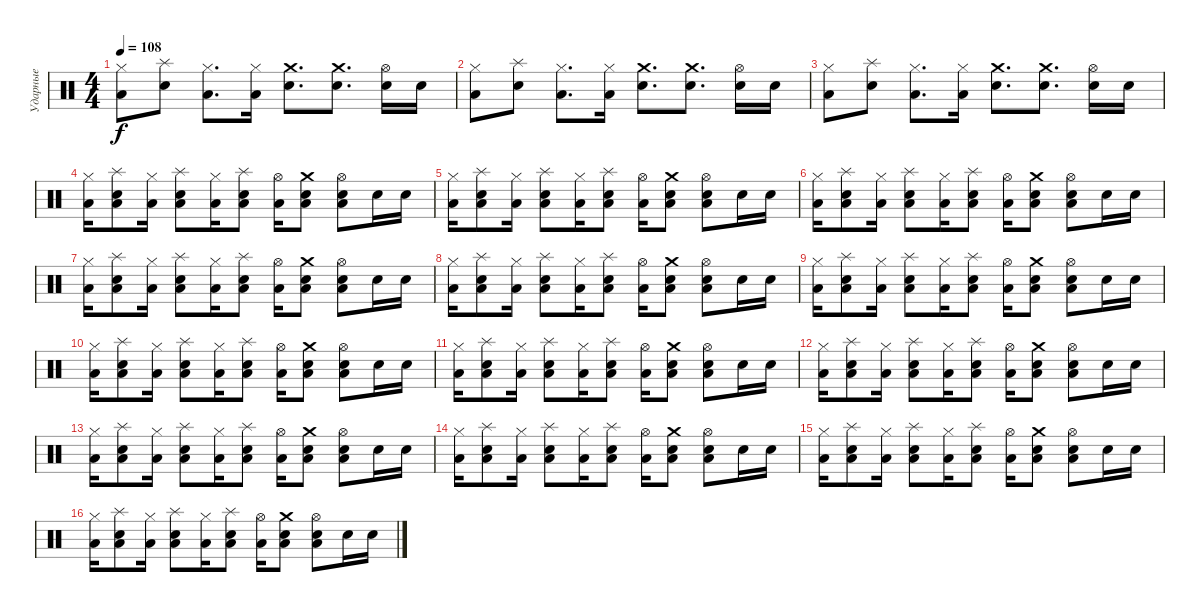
\track ("Ударные" "Ударные") {instrument percussion}
\staff {score}
\articulation defaults
\ts (4 4)
\tempo 108
\clef neutral
\ks c
("Low Floor Tom (hit)" "Hi-Hat (closed)").8{dy f} ("Electric Snare (hit)" "Splash (hit)").8 ("Low Floor Tom (hit)" "Hi-Hat (closed)").8{d} ("Low Floor Tom (hit)" "Hi-Hat (closed)").16 ("Electric Snare (hit)" "Crash medium (hit)").8{d} ("Electric Snare (hit)" "Crash medium (hit)").8{d} ("Electric Snare (hit)" "Hi-Hat (open)").16 "Electric Snare (hit)".16 |
("Low Floor Tom (hit)" "Hi-Hat (closed)").8 ("Electric Snare (hit)" "Splash (hit)").8 ("Low Floor Tom (hit)" "Hi-Hat (closed)").8{d} ("Low Floor Tom (hit)" "Hi-Hat (closed)").16 ("Electric Snare (hit)" "Crash medium (hit)").8{d} ("Electric Snare (hit)" "Crash medium (hit)").8{d} ("Electric Snare (hit)" "Hi-Hat (open)").16 "Electric Snare (hit)".16 |
("Low Floor Tom (hit)" "Hi-Hat (closed)").8 ("Electric Snare (hit)" "Splash (hit)").8 ("Low Floor Tom (hit)" "Hi-Hat (closed)").8{d} ("Low Floor Tom (hit)" "Hi-Hat (closed)").16 ("Electric Snare (hit)" "Crash medium (hit)").8{d} ("Electric Snare (hit)" "Crash medium (hit)").8{d} ("Electric Snare (hit)" "Hi-Hat (open)").16 "Electric Snare (hit)".16 |
("Low Floor Tom (hit)" "Hi-Hat (closed)").16 ("Low Floor Tom (hit)" "Electric Snare (hit)" "Splash (hit)").8 ("Low Floor Tom (hit)" "Hi-Hat (closed)").16 ("Low Floor Tom (hit)" "Electric Snare (hit)" "Splash (hit)").8 ("Low Floor Tom (hit)" "Hi-Hat (closed)").16 ("Low Floor Tom (hit)" "Electric Snare (hit)" "Splash (hit)").8 ("Low Floor Tom (hit)" "Hi-Hat (open)").16 ("Low Floor Tom (hit)" "Electric Snare (hit)" "Crash medium (hit)").8 ("Low Floor Tom (hit)" "Electric Snare (hit)" "Hi-Hat (open)").8 "Electric Snare (hit)".16 "Electric Snare (hit)".16 |
("Low Floor Tom (hit)" "Hi-Hat (closed)").16 ("Low Floor Tom (hit)" "Electric Snare (hit)" "Splash (hit)").8 ("Low Floor Tom (hit)" "Hi-Hat (closed)").16 ("Low Floor Tom (hit)" "Electric Snare (hit)" "Splash (hit)").8 ("Low Floor Tom (hit)" "Hi-Hat (closed)").16 ("Low Floor Tom (hit)" "Electric Snare (hit)" "Splash (hit)").8 ("Low Floor Tom (hit)" "Hi-Hat (open)").16 ("Low Floor Tom (hit)" "Electric Snare (hit)" "Crash medium (hit)").8 ("Low Floor Tom (hit)" "Electric Snare (hit)" "Hi-Hat (open)").8 "Electric Snare (hit)".16 "Electric Snare (hit)".16 |
("Low Floor Tom (hit)" "Hi-Hat (closed)").16 ("Low Floor Tom (hit)" "Electric Snare (hit)" "Splash (hit)").8 ("Low Floor Tom (hit)" "Hi-Hat (closed)").16 ("Low Floor Tom (hit)" "Electric Snare (hit)" "Splash (hit)").8 ("Low Floor Tom (hit)" "Hi-Hat (closed)").16 ("Low Floor Tom (hit)" "Electric Snare (hit)" "Splash (hit)").8 ("Low Floor Tom (hit)" "Hi-Hat (open)").16 ("Low Floor Tom (hit)" "Electric Snare (hit)" "Crash medium (hit)").8 ("Low Floor Tom (hit)" "Electric Snare (hit)" "Hi-Hat (open)").8 "Electric Snare (hit)".16 "Electric Snare (hit)".16 |
("Low Floor Tom (hit)" "Hi-Hat (closed)").16 ("Low Floor Tom (hit)" "Electric Snare (hit)" "Splash (hit)").8 ("Low Floor Tom (hit)" "Hi-Hat (closed)").16 ("Low Floor Tom (hit)" "Electric Snare (hit)" "Splash (hit)").8 ("Low Floor Tom (hit)" "Hi-Hat (closed)").16 ("Low Floor Tom (hit)" "Electric Snare (hit)" "Splash (hit)").8 ("Low Floor Tom (hit)" "Hi-Hat (open)").16 ("Low Floor Tom (hit)" "Electric Snare (hit)" "Crash medium (hit)").8 ("Low Floor Tom (hit)" "Electric Snare (hit)" "Hi-Hat (open)").8 "Electric Snare (hit)".16 "Electric Snare (hit)".16 |
("Low Floor Tom (hit)" "Hi-Hat (closed)").16 ("Low Floor Tom (hit)" "Electric Snare (hit)" "Splash (hit)").8 ("Low Floor Tom (hit)" "Hi-Hat (closed)").16 ("Low Floor Tom (hit)" "Electric Snare (hit)" "Splash (hit)").8 ("Low Floor Tom (hit)" "Hi-Hat (closed)").16 ("Low Floor Tom (hit)" "Electric Snare (hit)" "Splash (hit)").8 ("Low Floor Tom (hit)" "Hi-Hat (open)").16 ("Low Floor Tom (hit)" "Electric Snare (hit)" "Crash medium (hit)").8 ("Low Floor Tom (hit)" "Electric Snare (hit)" "Hi-Hat (open)").8 "Electric Snare (hit)".16 "Electric Snare (hit)".16 |
("Low Floor Tom (hit)" "Hi-Hat (closed)").16 ("Low Floor Tom (hit)" "Electric Snare (hit)" "Splash (hit)").8 ("Low Floor Tom (hit)" "Hi-Hat (closed)").16 ("Low Floor Tom (hit)" "Electric Snare (hit)" "Splash (hit)").8 ("Low Floor Tom (hit)" "Hi-Hat (closed)").16 ("Low Floor Tom (hit)" "Electric Snare (hit)" "Splash (hit)").8 ("Low Floor Tom (hit)" "Hi-Hat (open)").16 ("Low Floor Tom (hit)" "Electric Snare (hit)" "Crash medium (hit)").8 ("Low Floor Tom (hit)" "Electric Snare (hit)" "Hi-Hat (open)").8 "Electric Snare (hit)".16 "Electric Snare (hit)".16 |
("Low Floor Tom (hit)" "Hi-Hat (closed)").16 ("Low Floor Tom (hit)" "Electric Snare (hit)" "Splash (hit)").8 ("Low Floor Tom (hit)" "Hi-Hat (closed)").16 ("Low Floor Tom (hit)" "Electric Snare (hit)" "Splash (hit)").8 ("Low Floor Tom (hit)" "Hi-Hat (closed)").16 ("Low Floor Tom (hit)" "Electric Snare (hit)" "Splash (hit)").8 ("Low Floor Tom (hit)" "Hi-Hat (open)").16 ("Low Floor Tom (hit)" "Electric Snare (hit)" "Crash medium (hit)").8 ("Low Floor Tom (hit)" "Electric Snare (hit)" "Hi-Hat (open)").8 "Electric Snare (hit)".16 "Electric Snare (hit)".16 |
("Low Floor Tom (hit)" "Hi-Hat (closed)").16 ("Low Floor Tom (hit)" "Electric Snare (hit)" "Splash (hit)").8 ("Low Floor Tom (hit)" "Hi-Hat (closed)").16 ("Low Floor Tom (hit)" "Electric Snare (hit)" "Splash (hit)").8 ("Low Floor Tom (hit)" "Hi-Hat (closed)").16 ("Low Floor Tom (hit)" "Electric Snare (hit)" "Splash (hit)").8 ("Low Floor Tom (hit)" "Hi-Hat (open)").16 ("Low Floor Tom (hit)" "Electric Snare (hit)" "Crash medium (hit)").8 ("Low Floor Tom (hit)" "Electric Snare (hit)" "Hi-Hat (open)").8 "Electric Snare (hit)".16 "Electric Snare (hit)".16 |
("Low Floor Tom (hit)" "Hi-Hat (closed)").16 ("Low Floor Tom (hit)" "Electric Snare (hit)" "Splash (hit)").8 ("Low Floor Tom (hit)" "Hi-Hat (closed)").16 ("Low Floor Tom (hit)" "Electric Snare (hit)" "Splash (hit)").8 ("Low Floor Tom (hit)" "Hi-Hat (closed)").16 ("Low Floor Tom (hit)" "Electric Snare (hit)" "Splash (hit)").8 ("Low Floor Tom (hit)" "Hi-Hat (open)").16 ("Low Floor Tom (hit)" "Electric Snare (hit)" "Crash medium (hit)").8 ("Low Floor Tom (hit)" "Electric Snare (hit)" "Hi-Hat (open)").8 "Electric Snare (hit)".16 "Electric Snare (hit)".16 |
("Low Floor Tom (hit)" "Hi-Hat (closed)").16 ("Low Floor Tom (hit)" "Electric Snare (hit)" "Splash (hit)").8 ("Low Floor Tom (hit)" "Hi-Hat (closed)").16 ("Low Floor Tom (hit)" "Electric Snare (hit)" "Splash (hit)").8 ("Low Floor Tom (hit)" "Hi-Hat (closed)").16 ("Low Floor Tom (hit)" "Electric Snare (hit)" "Splash (hit)").8 ("Low Floor Tom (hit)" "Hi-Hat (open)").16 ("Low Floor Tom (hit)" "Electric Snare (hit)" "Crash medium (hit)").8 ("Low Floor Tom (hit)" "Electric Snare (hit)" "Hi-Hat (open)").8 "Electric Snare (hit)".16 "Electric Snare (hit)".16 |
("Low Floor Tom (hit)" "Hi-Hat (closed)").16 ("Low Floor Tom (hit)" "Electric Snare (hit)" "Splash (hit)").8 ("Low Floor Tom (hit)" "Hi-Hat (closed)").16 ("Low Floor Tom (hit)" "Electric Snare (hit)" "Splash (hit)").8 ("Low Floor Tom (hit)" "Hi-Hat (closed)").16 ("Low Floor Tom (hit)" "Electric Snare (hit)" "Splash (hit)").8 ("Low Floor Tom (hit)" "Hi-Hat (open)").16 ("Low Floor Tom (hit)" "Electric Snare (hit)" "Crash medium (hit)").8 ("Low Floor Tom (hit)" "Electric Snare (hit)" "Hi-Hat (open)").8 "Electric Snare (hit)".16 "Electric Snare (hit)".16 |
("Low Floor Tom (hit)" "Hi-Hat (closed)").16 ("Low Floor Tom (hit)" "Electric Snare (hit)" "Splash (hit)").8 ("Low Floor Tom (hit)" "Hi-Hat (closed)").16 ("Low Floor Tom (hit)" "Electric Snare (hit)" "Splash (hit)").8 ("Low Floor Tom (hit)" "Hi-Hat (closed)").16 ("Low Floor Tom (hit)" "Electric Snare (hit)" "Splash (hit)").8 ("Low Floor Tom (hit)" "Hi-Hat (open)").16 ("Low Floor Tom (hit)" "Electric Snare (hit)" "Crash medium (hit)").8 ("Low Floor Tom (hit)" "Electric Snare (hit)" "Hi-Hat (open)").8 "Electric Snare (hit)".16 "Electric Snare (hit)".16 |
("Low Floor Tom (hit)" "Hi-Hat (closed)").16 ("Low Floor Tom (hit)" "Electric Snare (hit)" "Splash (hit)").8 ("Low Floor Tom (hit)" "Hi-Hat (closed)").16 ("Low Floor Tom (hit)" "Electric Snare (hit)" "Splash (hit)").8 ("Low Floor Tom (hit)" "Hi-Hat (closed)").16 ("Low Floor Tom (hit)" "Electric Snare (hit)" "Splash (hit)").8 ("Low Floor Tom (hit)" "Hi-Hat (open)").16 ("Low Floor Tom (hit)" "Electric Snare (hit)" "Crash medium (hit)").8 ("Low Floor Tom (hit)" "Electric Snare (hit)" "Hi-Hat (open)").8 "Electric Snare (hit)".16 "Electric Snare (hit)".16
